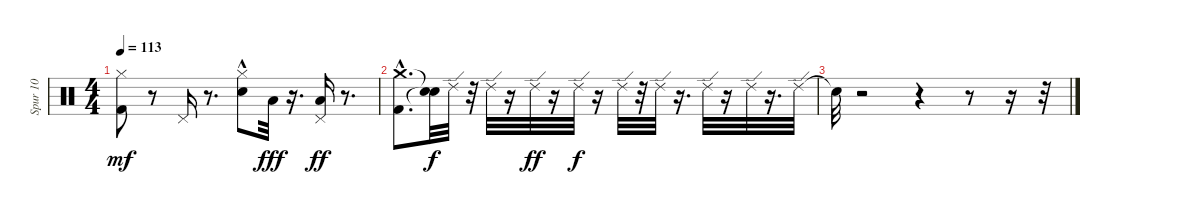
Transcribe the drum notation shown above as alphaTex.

\track ("Spur 10" "Spur 10") {instrument percussion}
\staff {score}
\articulation defaults
\ts (4 4)
\tempo 113
\clef neutral
\ks c
("Kick (hit) 2" "Hi-Hat (closed)").8{dy mf} r.8 "Pedal Hi-Hat (hit)".16 r.8{d} ("Snare (hit) 2"{hac} "Hi-Hat (closed)").8 "Low Tom (hit)".32{dy fff} r.16{d} ("Pedal Hi-Hat (hit)" "Low Tom (hit)").16{dy ff} r.8{d} |
("Crash medium (hit)"{hac} "Kick (hit) 2"{hac}).8{d} ("Snare (hit)"{t} "Snare (hit)"{t}).32{dy f} "Ride (edge) 2".32 r.32 "Ride (edge) 2".32 r.16 "Ride (edge) 2".32{dy ff} r.16 "Ride (edge) 2".32{dy f} r.16 "Ride (edge) 2".32 r.32 "Ride (edge) 2".32 r.16{d} "Ride (edge) 2".32 r.16 "Ride (edge) 2".32 r.16{d} "Ride (edge) 2".32 |
"Snare (hit)"{t}.32 r.2 r.4 r.8 r.16 r.32
